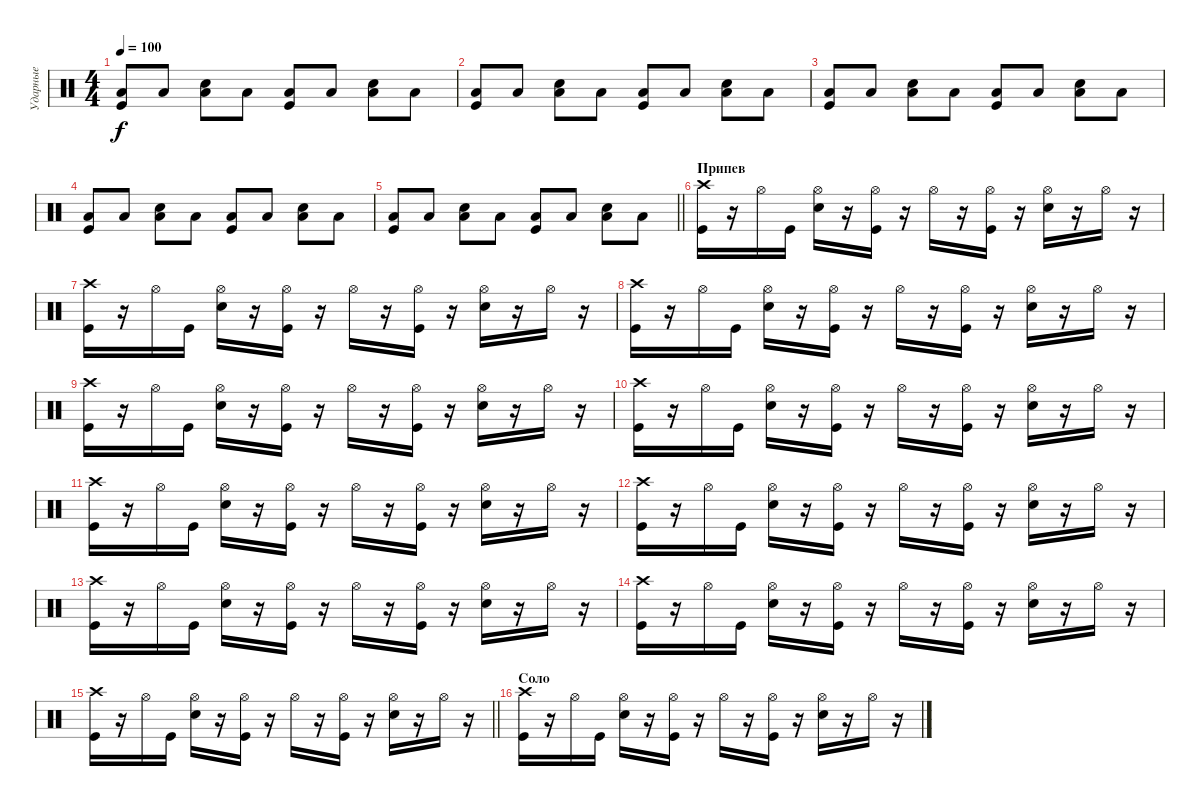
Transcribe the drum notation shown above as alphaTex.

\track ("Ударные" "Ударные") {instrument percussion}
\staff {score}
\articulation defaults
\ts (4 4)
\tempo 100
\clef neutral
\ks c
("Low Tom (hit)" "Kick (hit)").8{dy f} "Low Tom (hit)".8 ("Snare (hit) 2" "Low Tom (hit)").8 "Low Tom (hit)".8 ("Low Tom (hit)" "Kick (hit)").8 "Low Tom (hit)".8 ("Snare (hit) 2" "Low Tom (hit)").8 "Low Tom (hit)".8 |
("Low Tom (hit)" "Kick (hit)").8 "Low Tom (hit)".8 ("Snare (hit) 2" "Low Tom (hit)").8 "Low Tom (hit)".8 ("Low Tom (hit)" "Kick (hit)").8 "Low Tom (hit)".8 ("Snare (hit) 2" "Low Tom (hit)").8 "Low Tom (hit)".8 |
("Low Tom (hit)" "Kick (hit)").8 "Low Tom (hit)".8 ("Snare (hit) 2" "Low Tom (hit)").8 "Low Tom (hit)".8 ("Low Tom (hit)" "Kick (hit)").8 "Low Tom (hit)".8 ("Snare (hit) 2" "Low Tom (hit)").8 "Low Tom (hit)".8 |
("Low Tom (hit)" "Kick (hit)").8 "Low Tom (hit)".8 ("Snare (hit) 2" "Low Tom (hit)").8 "Low Tom (hit)".8 ("Low Tom (hit)" "Kick (hit)").8 "Low Tom (hit)".8 ("Snare (hit) 2" "Low Tom (hit)").8 "Low Tom (hit)".8 |
\barLineRight lightlight
("Low Tom (hit)" "Kick (hit)").8 "Low Tom (hit)".8 ("Snare (hit) 2" "Low Tom (hit)").8 "Low Tom (hit)".8 ("Low Tom (hit)" "Kick (hit)").8 "Low Tom (hit)".8 ("Snare (hit) 2" "Low Tom (hit)").8 "Low Tom (hit)".8 |
\section ("" "Припев")
("Crash high (hit)" "Kick (hit)").16 r.16 "Hi-Hat (open)".16 "Kick (hit)".16 ("Electric Snare (hit)" "Hi-Hat (open)").16 r.16 ("Kick (hit)" "Hi-Hat (open)").16 r.16 "Hi-Hat (open)".16 r.16 ("Hi-Hat (open)" "Kick (hit)").16 r.16 ("Hi-Hat (open)" "Electric Snare (hit)").16 r.16 "Hi-Hat (open)".16 r.16 |
("Crash high (hit)" "Kick (hit)").16 r.16 "Hi-Hat (open)".16 "Kick (hit)".16 ("Electric Snare (hit)" "Hi-Hat (open)").16 r.16 ("Kick (hit)" "Hi-Hat (open)").16 r.16 "Hi-Hat (open)".16 r.16 ("Hi-Hat (open)" "Kick (hit)").16 r.16 ("Hi-Hat (open)" "Electric Snare (hit)").16 r.16 "Hi-Hat (open)".16 r.16 |
("Crash high (hit)" "Kick (hit)").16 r.16 "Hi-Hat (open)".16 "Kick (hit)".16 ("Electric Snare (hit)" "Hi-Hat (open)").16 r.16 ("Kick (hit)" "Hi-Hat (open)").16 r.16 "Hi-Hat (open)".16 r.16 ("Hi-Hat (open)" "Kick (hit)").16 r.16 ("Hi-Hat (open)" "Electric Snare (hit)").16 r.16 "Hi-Hat (open)".16 r.16 |
("Crash high (hit)" "Kick (hit)").16 r.16 "Hi-Hat (open)".16 "Kick (hit)".16 ("Electric Snare (hit)" "Hi-Hat (open)").16 r.16 ("Kick (hit)" "Hi-Hat (open)").16 r.16 "Hi-Hat (open)".16 r.16 ("Hi-Hat (open)" "Kick (hit)").16 r.16 ("Hi-Hat (open)" "Electric Snare (hit)").16 r.16 "Hi-Hat (open)".16 r.16 |
("Crash high (hit)" "Kick (hit)").16 r.16 "Hi-Hat (open)".16 "Kick (hit)".16 ("Electric Snare (hit)" "Hi-Hat (open)").16 r.16 ("Kick (hit)" "Hi-Hat (open)").16 r.16 "Hi-Hat (open)".16 r.16 ("Hi-Hat (open)" "Kick (hit)").16 r.16 ("Hi-Hat (open)" "Electric Snare (hit)").16 r.16 "Hi-Hat (open)".16 r.16 |
("Crash high (hit)" "Kick (hit)").16 r.16 "Hi-Hat (open)".16 "Kick (hit)".16 ("Electric Snare (hit)" "Hi-Hat (open)").16 r.16 ("Kick (hit)" "Hi-Hat (open)").16 r.16 "Hi-Hat (open)".16 r.16 ("Hi-Hat (open)" "Kick (hit)").16 r.16 ("Hi-Hat (open)" "Electric Snare (hit)").16 r.16 "Hi-Hat (open)".16 r.16 |
("Crash high (hit)" "Kick (hit)").16 r.16 "Hi-Hat (open)".16 "Kick (hit)".16 ("Electric Snare (hit)" "Hi-Hat (open)").16 r.16 ("Kick (hit)" "Hi-Hat (open)").16 r.16 "Hi-Hat (open)".16 r.16 ("Hi-Hat (open)" "Kick (hit)").16 r.16 ("Hi-Hat (open)" "Electric Snare (hit)").16 r.16 "Hi-Hat (open)".16 r.16 |
("Crash high (hit)" "Kick (hit)").16 r.16 "Hi-Hat (open)".16 "Kick (hit)".16 ("Electric Snare (hit)" "Hi-Hat (open)").16 r.16 ("Kick (hit)" "Hi-Hat (open)").16 r.16 "Hi-Hat (open)".16 r.16 ("Hi-Hat (open)" "Kick (hit)").16 r.16 ("Hi-Hat (open)" "Electric Snare (hit)").16 r.16 "Hi-Hat (open)".16 r.16 |
("Crash high (hit)" "Kick (hit)").16 r.16 "Hi-Hat (open)".16 "Kick (hit)".16 ("Electric Snare (hit)" "Hi-Hat (open)").16 r.16 ("Kick (hit)" "Hi-Hat (open)").16 r.16 "Hi-Hat (open)".16 r.16 ("Hi-Hat (open)" "Kick (hit)").16 r.16 ("Hi-Hat (open)" "Electric Snare (hit)").16 r.16 "Hi-Hat (open)".16 r.16 |
\barLineRight lightlight
("Crash high (hit)" "Kick (hit)").16 r.16 "Hi-Hat (open)".16 "Kick (hit)".16 ("Electric Snare (hit)" "Hi-Hat (open)").16 r.16 ("Kick (hit)" "Hi-Hat (open)").16 r.16 "Hi-Hat (open)".16 r.16 ("Hi-Hat (open)" "Kick (hit)").16 r.16 ("Hi-Hat (open)" "Electric Snare (hit)").16 r.16 "Hi-Hat (open)".16 r.16 |
\section ("" "Соло")
("Crash high (hit)" "Kick (hit)").16 r.16 "Hi-Hat (open)".16 "Kick (hit)".16 ("Electric Snare (hit)" "Hi-Hat (open)").16 r.16 ("Kick (hit)" "Hi-Hat (open)").16 r.16 "Hi-Hat (open)".16 r.16 ("Hi-Hat (open)" "Kick (hit)").16 r.16 ("Hi-Hat (open)" "Electric Snare (hit)").16 r.16 "Hi-Hat (open)".16 r.16
